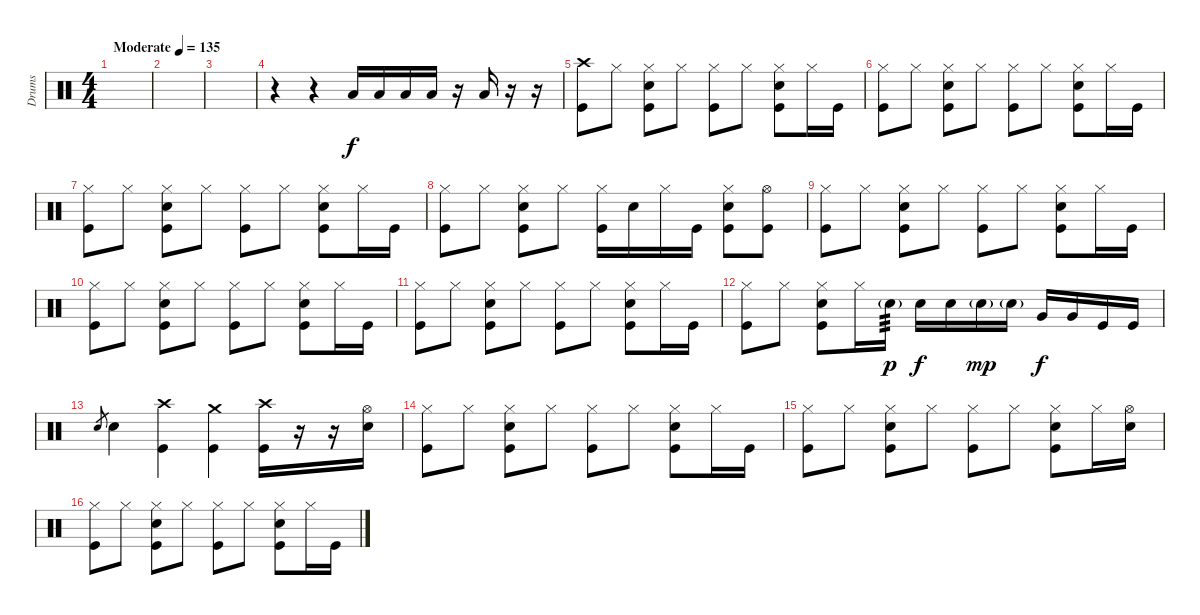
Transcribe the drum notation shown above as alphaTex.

\track ("Drums" "Drums") {instrument percussion}
\staff {score}
\articulation defaults
\ts (4 4)
\tempo (135 "Moderate")
\clef neutral
\ks c
|
|
|
r.4 r.4 "Low Tom (hit)".16 "Low Tom (hit)".16 "Low Tom (hit)".16 "Low Tom (hit)".16 r.16 "Low Tom (hit)".16 r.16 r.16 |
("Kick (hit)" "Crash high (hit)").8 "Hi-Hat (closed)".8 ("Kick (hit)" "Electric Snare (hit)" "Hi-Hat (closed)").8 "Hi-Hat (closed)".8 ("Kick (hit)" "Hi-Hat (closed)").8 "Hi-Hat (closed)".8 ("Kick (hit)" "Electric Snare (hit)" "Hi-Hat (closed)").8 "Hi-Hat (closed)".16 "Kick (hit)".16 |
("Kick (hit)" "Hi-Hat (closed)").8 "Hi-Hat (closed)".8 ("Kick (hit)" "Electric Snare (hit)" "Hi-Hat (closed)").8 "Hi-Hat (closed)".8 ("Kick (hit)" "Hi-Hat (closed)").8 "Hi-Hat (closed)".8 ("Kick (hit)" "Electric Snare (hit)" "Hi-Hat (closed)").8 "Hi-Hat (closed)".16 "Kick (hit)".16 |
("Kick (hit)" "Hi-Hat (closed)").8 "Hi-Hat (closed)".8 ("Kick (hit)" "Electric Snare (hit)" "Hi-Hat (closed)").8 "Hi-Hat (closed)".8 ("Kick (hit)" "Hi-Hat (closed)").8 "Hi-Hat (closed)".8 ("Kick (hit)" "Electric Snare (hit)" "Hi-Hat (closed)").8 "Hi-Hat (closed)".16 "Kick (hit)".16 |
("Kick (hit)" "Hi-Hat (closed)").8 "Hi-Hat (closed)".8 ("Kick (hit)" "Electric Snare (hit)" "Hi-Hat (closed)").8 "Hi-Hat (closed)".8 ("Kick (hit)" "Hi-Hat (closed)").16 "Electric Snare (hit)".16 "Hi-Hat (closed)".16 "Kick (hit)".16 ("Kick (hit)" "Hi-Hat (closed)" "Electric Snare (hit)").8 ("Kick (hit)" "Hi-Hat (open)").8 |
("Kick (hit)" "Hi-Hat (closed)").8 "Hi-Hat (closed)".8 ("Kick (hit)" "Electric Snare (hit)" "Hi-Hat (closed)").8 "Hi-Hat (closed)".8 ("Kick (hit)" "Hi-Hat (closed)").8 "Hi-Hat (closed)".8 ("Kick (hit)" "Electric Snare (hit)" "Hi-Hat (closed)").8 "Hi-Hat (closed)".16 "Kick (hit)".16 |
("Kick (hit)" "Hi-Hat (closed)").8 "Hi-Hat (closed)".8 ("Kick (hit)" "Electric Snare (hit)" "Hi-Hat (closed)").8 "Hi-Hat (closed)".8 ("Kick (hit)" "Hi-Hat (closed)").8 "Hi-Hat (closed)".8 ("Kick (hit)" "Electric Snare (hit)" "Hi-Hat (closed)").8 "Hi-Hat (closed)".16 "Kick (hit)".16 |
("Kick (hit)" "Hi-Hat (closed)").8 "Hi-Hat (closed)".8 ("Kick (hit)" "Electric Snare (hit)" "Hi-Hat (closed)").8 "Hi-Hat (closed)".8 ("Kick (hit)" "Hi-Hat (closed)").8 "Hi-Hat (closed)".8 ("Kick (hit)" "Electric Snare (hit)" "Hi-Hat (closed)").8 "Hi-Hat (closed)".16 "Kick (hit)".16 |
("Kick (hit)" "Hi-Hat (closed)").8 "Hi-Hat (closed)".8 ("Kick (hit)" "Electric Snare (hit)" "Hi-Hat (closed)").8 "Hi-Hat (closed)".16 "Electric Snare (hit)"{g}.16{tp 3 dy p} "Electric Snare (hit)".16{dy f} "Electric Snare (hit)".16 "Electric Snare (hit)"{g}.16{dy mp} "Electric Snare (hit)"{g}.16 "Very Low Tom (hit)".16{dy f} "Very Low Tom (hit)".16 "Kick (hit)".16 "Kick (hit)".16 |
"Electric Snare (hit)".8{gr} "Electric Snare (hit)".4 ("Kick (hit)" "Crash high (hit)").4 ("Kick (hit)" "Crash medium (hit)").4 ("Kick (hit)" "Crash high (hit)").16 r.16 r.16 ("Electric Snare (hit)" "Hi-Hat (open)").16 |
("Kick (hit)" "Hi-Hat (closed)").8 "Hi-Hat (closed)".8 ("Kick (hit)" "Electric Snare (hit)" "Hi-Hat (closed)").8 "Hi-Hat (closed)".8 ("Kick (hit)" "Hi-Hat (closed)").8 "Hi-Hat (closed)".8 ("Kick (hit)" "Electric Snare (hit)" "Hi-Hat (closed)").8 "Hi-Hat (closed)".16 "Kick (hit)".16 |
("Kick (hit)" "Hi-Hat (closed)").8 "Hi-Hat (closed)".8 ("Kick (hit)" "Electric Snare (hit)" "Hi-Hat (closed)").8 "Hi-Hat (closed)".8 ("Kick (hit)" "Hi-Hat (closed)").8 "Hi-Hat (closed)".8 ("Kick (hit)" "Electric Snare (hit)" "Hi-Hat (closed)").8 "Hi-Hat (closed)".16 ("Electric Snare (hit)" "Hi-Hat (open)").16 |
("Kick (hit)" "Hi-Hat (closed)").8 "Hi-Hat (closed)".8 ("Kick (hit)" "Electric Snare (hit)" "Hi-Hat (closed)").8 "Hi-Hat (closed)".8 ("Kick (hit)" "Hi-Hat (closed)").8 "Hi-Hat (closed)".8 ("Kick (hit)" "Electric Snare (hit)" "Hi-Hat (closed)").8 "Hi-Hat (closed)".16 "Kick (hit)".16
